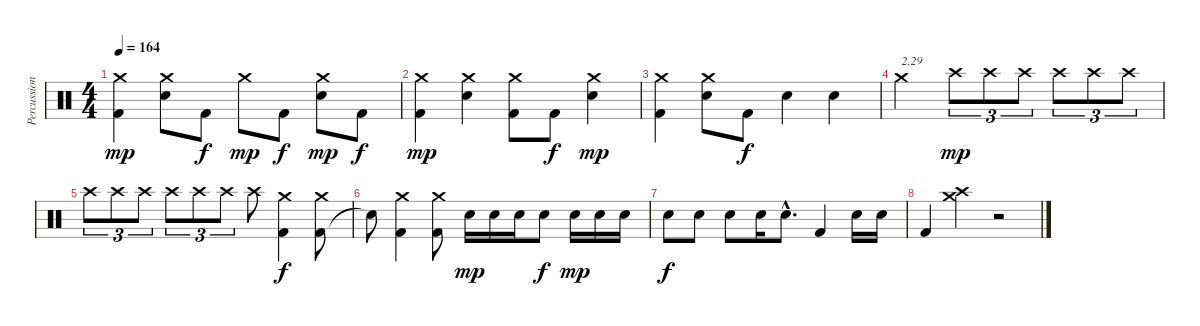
\track ("Percussions" "Percussion") {instrument percussion}
\staff {score}
\articulation defaults
\ts (4 4)
\tempo 164
\clef neutral
\ks c
("Kick (hit) 2" "Crash medium (hit)").4{dy mp} ("Electric Snare (hit)" "Crash medium (hit)").8 "Kick (hit) 2".8{dy f} "Crash medium (hit)".8{dy mp} "Kick (hit) 2".8{dy f} ("Electric Snare (hit)" "Crash medium (hit)").8{dy mp} "Kick (hit) 2".8{dy f} |
("Kick (hit) 2" "Crash medium (hit)").4{dy mp} ("Electric Snare (hit)" "Crash medium (hit)").4 ("Kick (hit) 2" "Crash medium (hit)").8 "Kick (hit) 2".8{dy f} ("Electric Snare (hit)" "Crash medium (hit)").4{dy mp} |
("Kick (hit) 2" "Crash medium (hit)").4 ("Electric Snare (hit)" "Crash medium (hit)").8 "Kick (hit) 2".8{dy f} "Electric Snare (hit)".4 "Electric Snare (hit)".4 |
"Crash medium (hit)".2{txt "2.29"} "Crash high (hit)".8{tu (3 2) dy mp} "Crash high (hit)".8{tu (3 2)} "Crash high (hit)".8{tu (3 2)} "Crash high (hit)".8{tu (3 2)} "Crash high (hit)".8{tu (3 2)} "Crash high (hit)".8{tu (3 2)} |
"Crash high (hit)".8{tu (3 2)} "Crash high (hit)".8{tu (3 2)} "Crash high (hit)".8{tu (3 2)} "Crash high (hit)".8{tu (3 2)} "Crash high (hit)".8{tu (3 2)} "Crash high (hit)".8{tu (3 2)} "Crash high (hit)".8 ("Kick (hit) 2" "Crash medium (hit)").4{dy f} ("Kick (hit) 2" "Crash medium (hit)").8 |
"Snare (hit)"{t}.8 ("Kick (hit) 2" "Crash medium (hit)").4 ("Kick (hit) 2" "Crash medium (hit)").8 "Electric Snare (hit)".16{dy mp} "Electric Snare (hit)".16 "Electric Snare (hit)".16 "Electric Snare (hit)".8{dy f} "Electric Snare (hit)".16{dy mp} "Electric Snare (hit)".16 "Electric Snare (hit)".16 |
"Electric Snare (hit)".8{dy f} "Electric Snare (hit)".8 "Electric Snare (hit)".8 "Electric Snare (hit)".16 "Electric Snare (hit)"{hac}.8{d} "Kick (hit) 2".4 "Electric Snare (hit)".16 "Electric Snare (hit)".16 |
"Kick (hit) 2".4 ("Crash medium (hit)" "Crash high (hit)").4 r.2
